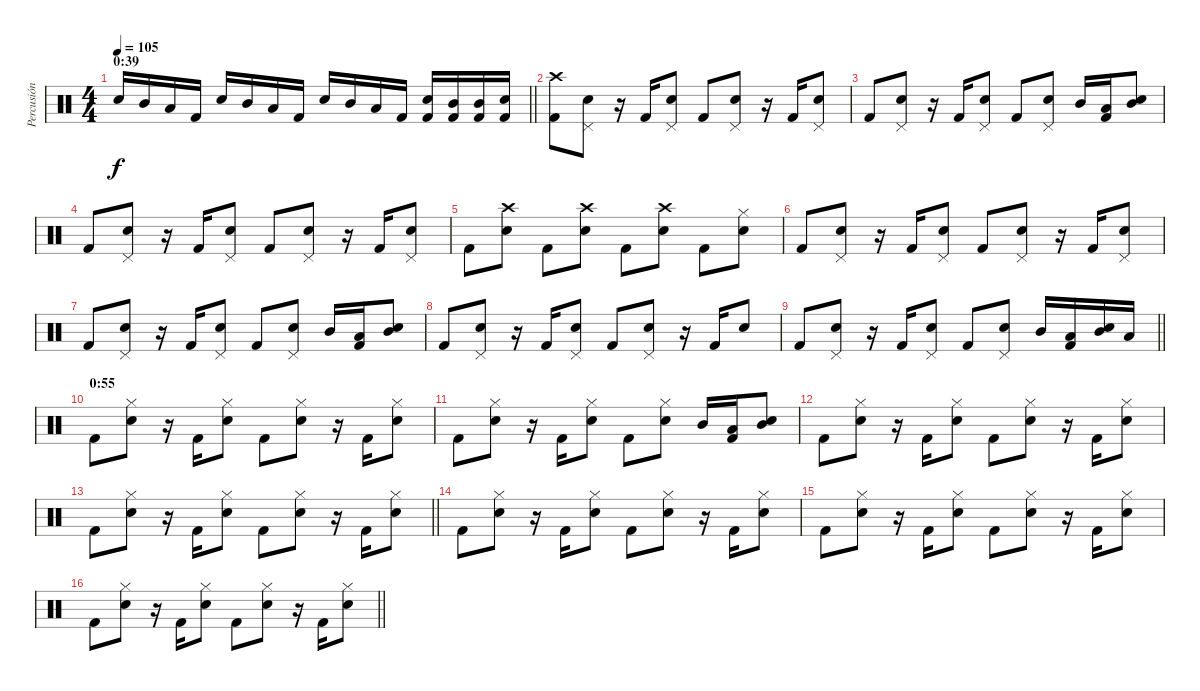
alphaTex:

\track ("Percusión" "Percusión") {instrument percussion}
\staff {score}
\articulation defaults
\ts (4 4)
\section ("" "0:39")
\tempo 105
\clef neutral
\barLineRight lightlight
\ks c "Snare (hit) 2".16{dy f} "Mid Tom (hit)".16 "Low Tom (hit)".16 "Kick (hit) 2".16 "Snare (hit) 2".16 "Mid Tom (hit)".16 "Low Tom (hit)".16 "Kick (hit) 2".16 "Snare (hit) 2".16 "Mid Tom (hit)".16 "Low Tom (hit)".16 "Kick (hit) 2".16
("Kick (hit) 2" "Snare (hit) 2").16 ("Kick (hit) 2" "Mid Tom (hit)").16 ("Kick (hit) 2" "Mid Tom (hit)").16 ("Kick (hit) 2" "Snare (hit) 2").16 |
("Kick (hit) 2" "Crash high (hit)").8 ("Snare (hit) 2" "Pedal Hi-Hat (hit)").8 r.16 "Kick (hit) 2".16 ("Snare (hit) 2" "Pedal Hi-Hat (hit)").8 "Kick (hit) 2".8 ("Snare (hit) 2" "Pedal Hi-Hat (hit)").8 r.16 "Kick (hit) 2".16 ("Snare (hit) 2" "Pedal Hi-Hat (hit)").8 |
"Kick (hit) 2".8 ("Snare (hit) 2" "Pedal Hi-Hat (hit)").8 r.16 "Kick (hit) 2".16 ("Snare (hit) 2" "Pedal Hi-Hat (hit)").8 "Kick (hit) 2".8 ("Snare (hit) 2" "Pedal Hi-Hat (hit)").8 "Mid Tom (hit)".16 ("Kick (hit) 2" "Low Tom (hit)").16 ("Snare (hit) 2" "Mid Tom (hit)").8 |
"Kick (hit) 2".8 ("Snare (hit) 2" "Pedal Hi-Hat (hit)").8 r.16 "Kick (hit) 2".16 ("Snare (hit) 2" "Pedal Hi-Hat (hit)").8 "Kick (hit) 2".8 ("Snare (hit) 2" "Pedal Hi-Hat (hit)").8 r.16 "Kick (hit) 2".16 ("Snare (hit) 2" "Pedal Hi-Hat (hit)").8 |
"Kick (hit) 2".8 ("Snare (hit) 2" "Crash high (hit)").8 "Kick (hit) 2".8 ("Snare (hit) 2" "Crash high (hit)").8 "Kick (hit) 2".8 ("Snare (hit) 2" "Crash high (hit)").8 "Kick (hit) 2".8 ("Snare (hit) 2" "Hi-Hat (closed)").8 |
"Kick (hit) 2".8 ("Snare (hit) 2" "Pedal Hi-Hat (hit)").8 r.16 "Kick (hit) 2".16 ("Snare (hit) 2" "Pedal Hi-Hat (hit)").8 "Kick (hit) 2".8 ("Snare (hit) 2" "Pedal Hi-Hat (hit)").8 r.16 "Kick (hit) 2".16 ("Snare (hit) 2" "Pedal Hi-Hat (hit)").8 |
"Kick (hit) 2".8 ("Snare (hit) 2" "Pedal Hi-Hat (hit)").8 r.16 "Kick (hit) 2".16 ("Snare (hit) 2" "Pedal Hi-Hat (hit)").8 "Kick (hit) 2".8 ("Snare (hit) 2" "Pedal Hi-Hat (hit)").8 "Mid Tom (hit)".16 ("Kick (hit) 2" "Low Tom (hit)").16 ("Snare (hit) 2" "Mid Tom (hit)").8 |
"Kick (hit) 2".8 ("Snare (hit) 2" "Pedal Hi-Hat (hit)").8 r.16 "Kick (hit) 2".16 ("Snare (hit) 2" "Pedal Hi-Hat (hit)").8 "Kick (hit) 2".8 ("Snare (hit) 2" "Pedal Hi-Hat (hit)").8 r.16 "Kick (hit) 2".16 "Snare (hit) 2".8 |
\barLineRight lightlight "Kick (hit) 2".8
("Snare (hit) 2" "Pedal Hi-Hat (hit)").8 r.16 "Kick (hit) 2".16 ("Snare (hit) 2" "Pedal Hi-Hat (hit)").8 "Kick (hit) 2".8 ("Snare (hit) 2" "Pedal Hi-Hat (hit)").8 "Mid Tom (hit)".16 ("Kick (hit) 2" "Low Tom (hit)").16 ("Snare (hit) 2" "Mid Tom (hit)").16 "Low Tom (hit)".16 |
\section ("" "0:55")
"Kick (hit) 2".8 ("Snare (hit) 2" "Hi-Hat (closed)").8 r.16 "Kick (hit) 2".16 ("Snare (hit) 2" "Hi-Hat (closed)").8 "Kick (hit) 2".8 ("Snare (hit) 2" "Hi-Hat (closed)").8 r.16 "Kick (hit) 2".16 ("Snare (hit) 2" "Hi-Hat (closed)").8 |
"Kick (hit) 2".8 ("Snare (hit) 2" "Hi-Hat (closed)").8 r.16 "Kick (hit) 2".16 ("Snare (hit) 2" "Hi-Hat (closed)").8 "Kick (hit) 2".8 ("Snare (hit) 2" "Hi-Hat (closed)").8 "Mid Tom (hit)".16 ("Kick (hit) 2" "Low Tom (hit)").16 ("Snare (hit) 2" "Mid Tom (hit)").8 |
"Kick (hit) 2".8 ("Snare (hit) 2" "Hi-Hat (closed)").8 r.16 "Kick (hit) 2".16 ("Snare (hit) 2" "Hi-Hat (closed)").8 "Kick (hit) 2".8 ("Snare (hit) 2" "Hi-Hat (closed)").8 r.16 "Kick (hit) 2".16 ("Snare (hit) 2" "Hi-Hat (closed)").8 |
\barLineRight lightlight "Kick (hit) 2".8
("Snare (hit) 2" "Hi-Hat (closed)").8 r.16 "Kick (hit) 2".16 ("Snare (hit) 2" "Hi-Hat (closed)").8 "Kick (hit) 2".8 ("Snare (hit) 2" "Hi-Hat (closed)").8 r.16 "Kick (hit) 2".16 ("Snare (hit) 2" "Hi-Hat (closed)").8 |
"Kick (hit) 2".8 ("Snare (hit) 2" "Hi-Hat (closed)").8 r.16 "Kick (hit) 2".16 ("Snare (hit) 2" "Hi-Hat (closed)").8 "Kick (hit) 2".8 ("Snare (hit) 2" "Hi-Hat (closed)").8 r.16 "Kick (hit) 2".16 ("Snare (hit) 2" "Hi-Hat (closed)").8 |
"Kick (hit) 2".8 ("Snare (hit) 2" "Hi-Hat (closed)").8 r.16 "Kick (hit) 2".16 ("Snare (hit) 2" "Hi-Hat (closed)").8 "Kick (hit) 2".8 ("Snare (hit) 2" "Hi-Hat (closed)").8 r.16 "Kick (hit) 2".16 ("Snare (hit) 2" "Hi-Hat (closed)").8 |
\barLineRight lightlight "Kick (hit) 2".8
("Snare (hit) 2" "Hi-Hat (closed)").8 r.16 "Kick (hit) 2".16 ("Snare (hit) 2" "Hi-Hat (closed)").8 "Kick (hit) 2".8 ("Snare (hit) 2" "Hi-Hat (closed)").8 r.16 "Kick (hit) 2".16 ("Snare (hit) 2" "Hi-Hat (closed)").8
